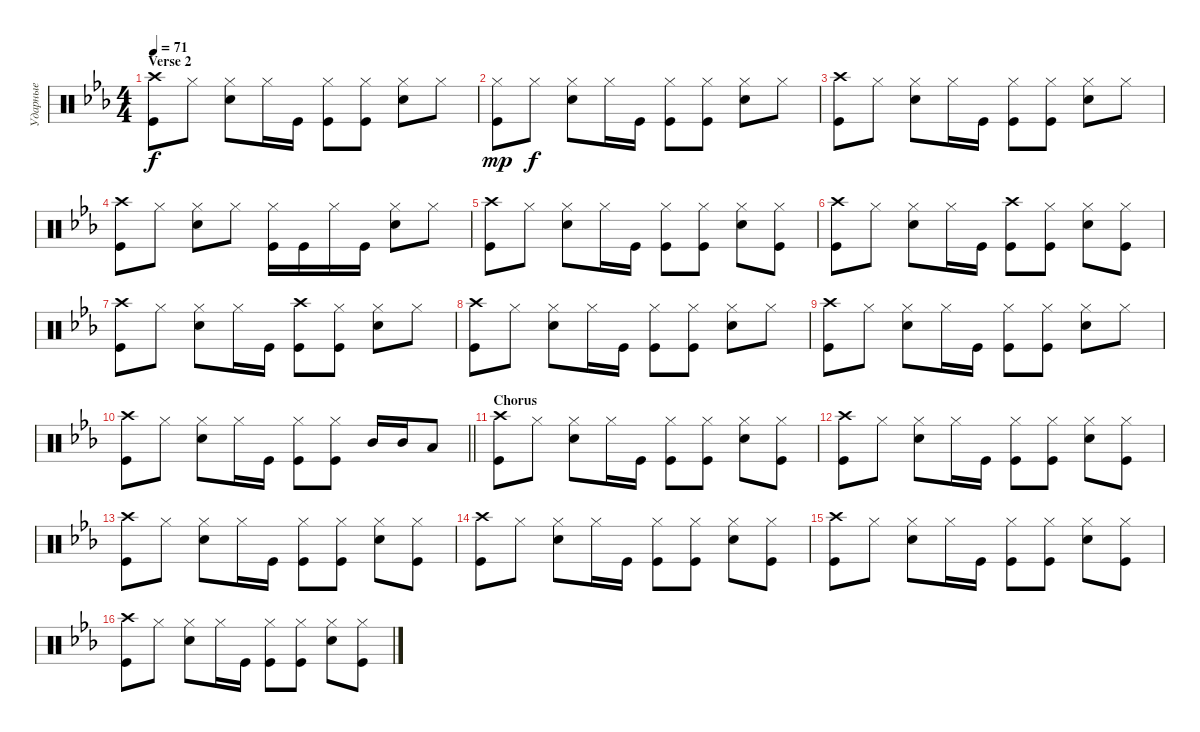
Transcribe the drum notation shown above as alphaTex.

\track ("Ударные" "Ударные") {instrument percussion}
\staff {score}
\articulation defaults
\ts (4 4)
\section ("" "Verse 2")
\tempo 71
\clef neutral
\ks cminor
("Kick (hit)" "Crash high (hit)").8{dy f} "Hi-Hat (closed)".8 ("Snare (hit) 2" "Hi-Hat (closed)").8 "Hi-Hat (closed)".16 "Kick (hit)".16 ("Hi-Hat (closed)" "Kick (hit)").8 ("Hi-Hat (closed)" "Kick (hit)").8 ("Hi-Hat (closed)" "Snare (hit) 2").8 "Hi-Hat (closed)".8 |
("Kick (hit)" "Hi-Hat (closed)").8{dy mp} "Hi-Hat (closed)".8{dy f} ("Snare (hit) 2" "Hi-Hat (closed)").8 "Hi-Hat (closed)".16 "Kick (hit)".16 ("Hi-Hat (closed)" "Kick (hit)").8 ("Hi-Hat (closed)" "Kick (hit)").8 ("Hi-Hat (closed)" "Snare (hit) 2").8 "Hi-Hat (closed)".8 |
("Kick (hit)" "Crash high (hit)").8 "Hi-Hat (closed)".8 ("Snare (hit) 2" "Hi-Hat (closed)").8 "Hi-Hat (closed)".16 "Kick (hit)".16 ("Hi-Hat (closed)" "Kick (hit)").8 ("Hi-Hat (closed)" "Kick (hit)").8 ("Hi-Hat (closed)" "Snare (hit) 2").8 "Hi-Hat (closed)".8 |
("Kick (hit)" "Crash high (hit)").8 "Hi-Hat (closed)".8 ("Snare (hit) 2" "Hi-Hat (closed)").8 "Hi-Hat (closed)".8 ("Hi-Hat (closed)" "Kick (hit)").16 "Kick (hit)".16 "Hi-Hat (closed)".16 "Kick (hit)".16 ("Hi-Hat (closed)" "Snare (hit) 2").8 "Hi-Hat (closed)".8 |
("Kick (hit)" "Crash high (hit)").8 "Hi-Hat (closed)".8 ("Snare (hit) 2" "Hi-Hat (closed)").8 "Hi-Hat (closed)".16 "Kick (hit)".16 ("Hi-Hat (closed)" "Kick (hit)").8 ("Hi-Hat (closed)" "Kick (hit)").8 ("Hi-Hat (closed)" "Snare (hit) 2").8 ("Hi-Hat (closed)" "Kick (hit)").8 |
("Kick (hit)" "Crash high (hit)").8 "Hi-Hat (closed)".8 ("Snare (hit) 2" "Hi-Hat (closed)").8 "Hi-Hat (closed)".16 "Kick (hit)".16 ("Crash high (hit)" "Kick (hit)").8 ("Hi-Hat (closed)" "Kick (hit)").8 ("Hi-Hat (closed)" "Snare (hit) 2").8 ("Hi-Hat (closed)" "Kick (hit)").8 |
("Kick (hit)" "Crash high (hit)").8 "Hi-Hat (closed)".8 ("Snare (hit) 2" "Hi-Hat (closed)").8 "Hi-Hat (closed)".16 "Kick (hit)".16 ("Crash high (hit)" "Kick (hit)").8 ("Hi-Hat (closed)" "Kick (hit)").8 ("Hi-Hat (closed)" "Snare (hit) 2").8 "Hi-Hat (closed)".8 |
("Kick (hit)" "Crash high (hit)").8 "Hi-Hat (closed)".8 ("Snare (hit) 2" "Hi-Hat (closed)").8 "Hi-Hat (closed)".16 "Kick (hit)".16 ("Hi-Hat (closed)" "Kick (hit)").8 ("Hi-Hat (closed)" "Kick (hit)").8 ("Hi-Hat (closed)" "Snare (hit) 2").8 "Hi-Hat (closed)".8 |
("Kick (hit)" "Crash high (hit)").8 "Hi-Hat (closed)".8 ("Snare (hit) 2" "Hi-Hat (closed)").8 "Hi-Hat (closed)".16 "Kick (hit)".16 ("Hi-Hat (closed)" "Kick (hit)").8 ("Hi-Hat (closed)" "Kick (hit)").8 ("Hi-Hat (closed)" "Snare (hit) 2").8 "Hi-Hat (closed)".8 |
\barLineRight lightlight
("Kick (hit)" "Crash high (hit)").8 "Hi-Hat (closed)".8 ("Snare (hit) 2" "Hi-Hat (closed)").8 "Hi-Hat (closed)".16 "Kick (hit)".16 ("Hi-Hat (closed)" "Kick (hit)").8 ("Hi-Hat (closed)" "Kick (hit)").8 "Mid Tom (hit)".16 "Mid Tom (hit)".16 "Low Tom (hit)".8 |
\section ("" "Chorus")
("Kick (hit)" "Crash high (hit)").8 "Hi-Hat (closed)".8 ("Snare (hit) 2" "Hi-Hat (closed)").8 "Hi-Hat (closed)".16 "Kick (hit)".16 ("Hi-Hat (closed)" "Kick (hit)").8 ("Hi-Hat (closed)" "Kick (hit)").8 ("Hi-Hat (closed)" "Snare (hit) 2").8 ("Hi-Hat (closed)" "Kick (hit)").8 |
("Kick (hit)" "Crash high (hit)").8 "Hi-Hat (closed)".8 ("Snare (hit) 2" "Hi-Hat (closed)").8 "Hi-Hat (closed)".16 "Kick (hit)".16 ("Hi-Hat (closed)" "Kick (hit)").8 ("Hi-Hat (closed)" "Kick (hit)").8 ("Hi-Hat (closed)" "Snare (hit) 2").8 ("Hi-Hat (closed)" "Kick (hit)").8 |
("Kick (hit)" "Crash high (hit)").8 "Hi-Hat (closed)".8 ("Snare (hit) 2" "Hi-Hat (closed)").8 "Hi-Hat (closed)".16 "Kick (hit)".16 ("Hi-Hat (closed)" "Kick (hit)").8 ("Hi-Hat (closed)" "Kick (hit)").8 ("Hi-Hat (closed)" "Snare (hit) 2").8 ("Hi-Hat (closed)" "Kick (hit)").8 |
("Kick (hit)" "Crash high (hit)").8 "Hi-Hat (closed)".8 ("Snare (hit) 2" "Hi-Hat (closed)").8 "Hi-Hat (closed)".16 "Kick (hit)".16 ("Hi-Hat (closed)" "Kick (hit)").8 ("Hi-Hat (closed)" "Kick (hit)").8 ("Hi-Hat (closed)" "Snare (hit) 2").8 ("Hi-Hat (closed)" "Kick (hit)").8 |
("Kick (hit)" "Crash high (hit)").8 "Hi-Hat (closed)".8 ("Snare (hit) 2" "Hi-Hat (closed)").8 "Hi-Hat (closed)".16 "Kick (hit)".16 ("Hi-Hat (closed)" "Kick (hit)").8 ("Hi-Hat (closed)" "Kick (hit)").8 ("Hi-Hat (closed)" "Snare (hit) 2").8 ("Hi-Hat (closed)" "Kick (hit)").8 |
("Kick (hit)" "Crash high (hit)").8 "Hi-Hat (closed)".8 ("Snare (hit) 2" "Hi-Hat (closed)").8 "Hi-Hat (closed)".16 "Kick (hit)".16 ("Hi-Hat (closed)" "Kick (hit)").8 ("Hi-Hat (closed)" "Kick (hit)").8 ("Hi-Hat (closed)" "Snare (hit) 2").8 ("Hi-Hat (closed)" "Kick (hit)").8
